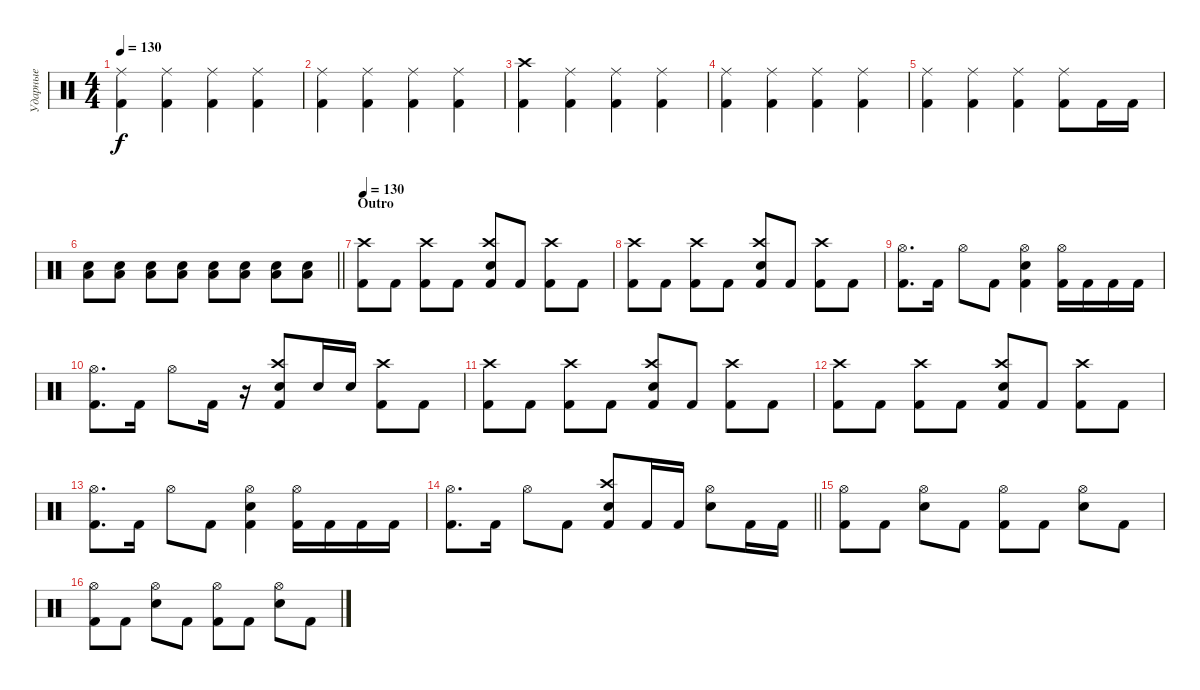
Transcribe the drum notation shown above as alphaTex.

\track ("Ударные" "Ударные") {instrument percussion}
\staff {score}
\articulation defaults
\ts (4 4)
\tempo 130
\clef neutral
\ks c
("Ride (middle)" "Kick (hit) 2").4{dy f} ("Ride (middle)" "Kick (hit) 2").4 ("Ride (middle)" "Kick (hit) 2").4 ("Ride (middle)" "Kick (hit) 2").4 |
("Ride (middle)" "Kick (hit) 2").4 ("Ride (middle)" "Kick (hit) 2").4 ("Ride (middle)" "Kick (hit) 2").4 ("Ride (middle)" "Kick (hit) 2").4 |
("Crash high (hit)" "Kick (hit) 2").4 ("Ride (middle)" "Kick (hit) 2").4 ("Ride (middle)" "Kick (hit) 2").4 ("Ride (middle)" "Kick (hit) 2").4 |
("Ride (middle)" "Kick (hit) 2").4 ("Ride (middle)" "Kick (hit) 2").4 ("Ride (middle)" "Kick (hit) 2").4 ("Ride (middle)" "Kick (hit) 2").4 |
("Ride (middle)" "Kick (hit) 2").4 ("Ride (middle)" "Kick (hit) 2").4 ("Ride (middle)" "Kick (hit) 2").4 ("Ride (middle)" "Kick (hit) 2").8 "Kick (hit) 2".16 "Kick (hit) 2".16 |
\barLineRight lightlight
("Low Floor Tom (hit)" "Electric Snare (hit)").8{volume 13} ("Low Floor Tom (hit)" "Electric Snare (hit)").8 ("Low Floor Tom (hit)" "Electric Snare (hit)").8 ("Low Floor Tom (hit)" "Electric Snare (hit)").8 ("Low Floor Tom (hit)" "Electric Snare (hit)").8 ("Low Floor Tom (hit)" "Electric Snare (hit)").8 ("Low Floor Tom (hit)" "Electric Snare (hit)").8 ("Low Floor Tom (hit)" "Electric Snare (hit)").8 |
\section ("" "Outro")
\tempo 130
("Crash high (hit)" "Kick (hit) 2").8 "Kick (hit) 2".8 ("Crash high (hit)" "Kick (hit) 2").8 "Kick (hit) 2".8 ("Crash high (hit)" "Electric Snare (hit)" "Kick (hit) 2").8 "Kick (hit) 2".8 ("Crash high (hit)" "Kick (hit) 2").8 "Kick (hit) 2".8 |
("Crash high (hit)" "Kick (hit) 2").8 "Kick (hit) 2".8 ("Crash high (hit)" "Kick (hit) 2").8 "Kick (hit) 2".8 ("Crash high (hit)" "Electric Snare (hit)" "Kick (hit) 2").8 "Kick (hit) 2".8 ("Crash high (hit)" "Kick (hit) 2").8 "Kick (hit) 2".8 |
("Hi-Hat (open)" "Kick (hit) 2").8{d} "Kick (hit) 2".16 "Hi-Hat (open)".8 "Kick (hit) 2".8 ("Hi-Hat (open)" "Electric Snare (hit)" "Kick (hit) 2").4 ("Hi-Hat (open)" "Kick (hit) 2").16 "Kick (hit) 2".16 "Kick (hit) 2".16 "Kick (hit) 2".16 |
("Hi-Hat (open)" "Kick (hit) 2").8{d} "Kick (hit) 2".16 "Hi-Hat (open)".8 "Kick (hit) 2".16 r.16 ("Crash high (hit)" "Electric Snare (hit)" "Kick (hit) 2").8 "Electric Snare (hit)".16 "Electric Snare (hit)".16 ("Crash high (hit)" "Kick (hit) 2").8 "Kick (hit) 2".8 |
("Crash high (hit)" "Kick (hit) 2").8 "Kick (hit) 2".8 ("Crash high (hit)" "Kick (hit) 2").8 "Kick (hit) 2".8 ("Crash high (hit)" "Electric Snare (hit)" "Kick (hit) 2").8 "Kick (hit) 2".8 ("Crash high (hit)" "Kick (hit) 2").8 "Kick (hit) 2".8 |
("Crash high (hit)" "Kick (hit) 2").8 "Kick (hit) 2".8 ("Crash high (hit)" "Kick (hit) 2").8 "Kick (hit) 2".8 ("Crash high (hit)" "Electric Snare (hit)" "Kick (hit) 2").8 "Kick (hit) 2".8 ("Crash high (hit)" "Kick (hit) 2").8 "Kick (hit) 2".8 |
("Hi-Hat (open)" "Kick (hit) 2").8{d} "Kick (hit) 2".16 "Hi-Hat (open)".8 "Kick (hit) 2".8 ("Hi-Hat (open)" "Electric Snare (hit)" "Kick (hit) 2").4 ("Hi-Hat (open)" "Kick (hit) 2").16 "Kick (hit) 2".16 "Kick (hit) 2".16 "Kick (hit) 2".16 |
\barLineRight lightlight
("Hi-Hat (open)" "Kick (hit) 2").8{d} "Kick (hit) 2".16 "Hi-Hat (open)".8 "Kick (hit) 2".8 ("Crash high (hit)" "Electric Snare (hit)" "Kick (hit) 2").8 "Kick (hit) 2".16 "Kick (hit) 2".16 ("Hi-Hat (open)" "Electric Snare (hit)").8 "Kick (hit) 2".16 "Kick (hit) 2".16 |
("Hi-Hat (open)" "Kick (hit) 2").8 "Kick (hit) 2".8 ("Hi-Hat (open)" "Electric Snare (hit)").8 "Kick (hit) 2".8 ("Hi-Hat (open)" "Kick (hit) 2").8 "Kick (hit) 2".8 ("Hi-Hat (open)" "Electric Snare (hit)").8 "Kick (hit) 2".8 |
("Hi-Hat (open)" "Kick (hit) 2").8 "Kick (hit) 2".8 ("Hi-Hat (open)" "Electric Snare (hit)").8 "Kick (hit) 2".8 ("Hi-Hat (open)" "Kick (hit) 2").8 "Kick (hit) 2".8 ("Hi-Hat (open)" "Electric Snare (hit)").8 "Kick (hit) 2".8
